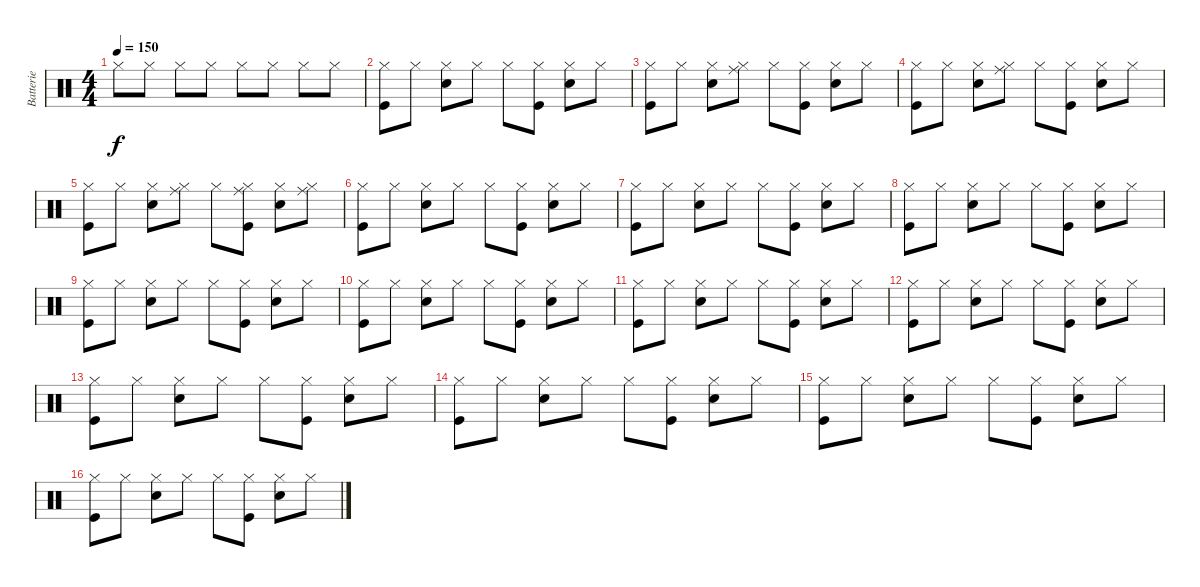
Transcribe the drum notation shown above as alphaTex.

\track ("Batterie" "Batterie") {instrument percussion}
\staff {score}
\articulation defaults
\ts (4 4)
\tempo 150
\clef neutral
\ks c "Hi-Hat (closed)".8{dy f} "Hi-Hat (closed)".8 "Hi-Hat (closed)".8 "Hi-Hat (closed)".8 "Hi-Hat (closed)".8 "Hi-Hat (closed)".8 "Hi-Hat (closed)".8 "Hi-Hat (closed)".8
|
("Hi-Hat (closed)" "Kick (hit)").8 "Hi-Hat (closed)".8 ("Hi-Hat (closed)" "Snare (hit) 2").8 "Hi-Hat (closed)".8 "Hi-Hat (closed)".8 ("Hi-Hat (closed)" "Kick (hit)").8 ("Hi-Hat (closed)" "Snare (hit) 2").8 "Hi-Hat (closed)".8 |
("Hi-Hat (closed)" "Kick (hit)").8 "Hi-Hat (closed)".8 ("Hi-Hat (closed)" "Snare (hit) 2").8 ("Hi-Hat (closed)" "Ride (middle)").8 "Hi-Hat (closed)".8 ("Hi-Hat (closed)" "Kick (hit)").8 ("Hi-Hat (closed)" "Snare (hit) 2").8 "Hi-Hat (closed)".8 |
("Hi-Hat (closed)" "Kick (hit)").8 "Hi-Hat (closed)".8 ("Hi-Hat (closed)" "Snare (hit) 2").8 ("Hi-Hat (closed)" "Ride (middle)").8 "Hi-Hat (closed)".8 ("Hi-Hat (closed)" "Kick (hit)").8 ("Hi-Hat (closed)" "Snare (hit) 2").8 "Hi-Hat (closed)".8 |
("Hi-Hat (closed)" "Kick (hit)").8 "Hi-Hat (closed)".8 ("Hi-Hat (closed)" "Snare (hit) 2").8 ("Hi-Hat (closed)" "Ride (middle)").8 "Hi-Hat (closed)".8 ("Hi-Hat (closed)" "Kick (hit)" "Ride (middle)").8 ("Hi-Hat (closed)" "Snare (hit) 2").8 ("Hi-Hat (closed)" "Ride (middle)").8 |
("Hi-Hat (closed)" "Kick (hit)").8 "Hi-Hat (closed)".8 ("Hi-Hat (closed)" "Snare (hit) 2").8 "Hi-Hat (closed)".8 "Hi-Hat (closed)".8 ("Hi-Hat (closed)" "Kick (hit)").8 ("Hi-Hat (closed)" "Snare (hit) 2").8 "Hi-Hat (closed)".8 |
("Hi-Hat (closed)" "Kick (hit)").8 "Hi-Hat (closed)".8 ("Hi-Hat (closed)" "Snare (hit) 2").8 "Hi-Hat (closed)".8 "Hi-Hat (closed)".8 ("Hi-Hat (closed)" "Kick (hit)").8 ("Hi-Hat (closed)" "Snare (hit) 2").8 "Hi-Hat (closed)".8 |
("Hi-Hat (closed)" "Kick (hit)").8 "Hi-Hat (closed)".8 ("Hi-Hat (closed)" "Snare (hit) 2").8 "Hi-Hat (closed)".8 "Hi-Hat (closed)".8 ("Hi-Hat (closed)" "Kick (hit)").8 ("Hi-Hat (closed)" "Snare (hit) 2").8 "Hi-Hat (closed)".8 |
("Hi-Hat (closed)" "Kick (hit)").8 "Hi-Hat (closed)".8 ("Hi-Hat (closed)" "Snare (hit) 2").8 "Hi-Hat (closed)".8 "Hi-Hat (closed)".8 ("Hi-Hat (closed)" "Kick (hit)").8 ("Hi-Hat (closed)" "Snare (hit) 2").8 "Hi-Hat (closed)".8 |
("Hi-Hat (closed)" "Kick (hit)").8 "Hi-Hat (closed)".8 ("Hi-Hat (closed)" "Snare (hit) 2").8 "Hi-Hat (closed)".8 "Hi-Hat (closed)".8 ("Hi-Hat (closed)" "Kick (hit)").8 ("Hi-Hat (closed)" "Snare (hit) 2").8 "Hi-Hat (closed)".8 |
("Hi-Hat (closed)" "Kick (hit)").8 "Hi-Hat (closed)".8 ("Hi-Hat (closed)" "Snare (hit) 2").8 "Hi-Hat (closed)".8 "Hi-Hat (closed)".8 ("Hi-Hat (closed)" "Kick (hit)").8 ("Hi-Hat (closed)" "Snare (hit) 2").8 "Hi-Hat (closed)".8 |
("Hi-Hat (closed)" "Kick (hit)").8 "Hi-Hat (closed)".8 ("Hi-Hat (closed)" "Snare (hit) 2").8 "Hi-Hat (closed)".8 "Hi-Hat (closed)".8 ("Hi-Hat (closed)" "Kick (hit)").8 ("Hi-Hat (closed)" "Snare (hit) 2").8 "Hi-Hat (closed)".8 |
("Hi-Hat (closed)" "Kick (hit)").8 "Hi-Hat (closed)".8 ("Hi-Hat (closed)" "Snare (hit) 2").8 "Hi-Hat (closed)".8 "Hi-Hat (closed)".8 ("Hi-Hat (closed)" "Kick (hit)").8 ("Hi-Hat (closed)" "Snare (hit) 2").8 "Hi-Hat (closed)".8 |
("Hi-Hat (closed)" "Kick (hit)").8 "Hi-Hat (closed)".8 ("Hi-Hat (closed)" "Snare (hit) 2").8 "Hi-Hat (closed)".8 "Hi-Hat (closed)".8 ("Hi-Hat (closed)" "Kick (hit)").8 ("Hi-Hat (closed)" "Snare (hit) 2").8 "Hi-Hat (closed)".8 |
("Hi-Hat (closed)" "Kick (hit)").8 "Hi-Hat (closed)".8 ("Hi-Hat (closed)" "Snare (hit) 2").8 "Hi-Hat (closed)".8 "Hi-Hat (closed)".8 ("Hi-Hat (closed)" "Kick (hit)").8 ("Hi-Hat (closed)" "Snare (hit) 2").8 "Hi-Hat (closed)".8 |
("Hi-Hat (closed)" "Kick (hit)").8 "Hi-Hat (closed)".8 ("Hi-Hat (closed)" "Snare (hit) 2").8 "Hi-Hat (closed)".8 "Hi-Hat (closed)".8 ("Hi-Hat (closed)" "Kick (hit)").8 ("Hi-Hat (closed)" "Snare (hit) 2").8 "Hi-Hat (closed)".8
